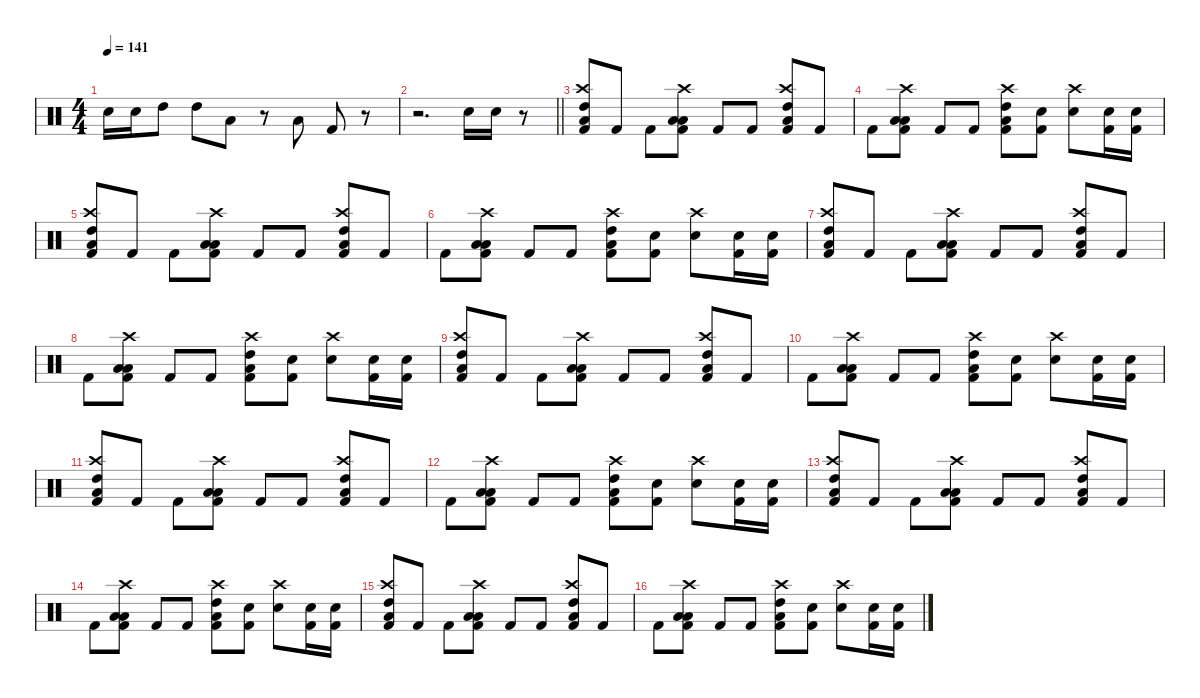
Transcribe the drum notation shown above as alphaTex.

\defaultSystemsLayout 4
\hideDynamics
\bracketExtendMode nobrackets
\singleTrackTrackNamePolicy hidden
\multiTrackTrackNamePolicy hidden
\otherSystemsTrackNameOrientation horizontal
\track ("Drum" "drm.") {instrument percussion}
\staff {score}
\articulation defaults
\ts (4 4)
\tempo 141
\clef neutral
\ks c "Snare (hit) 2".16{dy fff beam Down} "Snare (hit) 2".16{beam Down} "High Tom (hit)".8{beam Down} "High Tom (hit)".8{beam Down} "Low Tom (hit)".8{beam Down}
r.8{beam Down} "Low Floor Tom (hit)".8{beam Up} "Kick (hit) 2".8{beam Up} r.8{beam Up} |
\barLineRight lightlight
r.2{d beam Down} "Snare (hit) 2".16{beam Down} "Snare (hit) 2".16{beam Down} r.8{beam Down} |
("Kick (hit) 2" "High Tom (hit)" "Low Tom (hit)" "Crash high (hit)").8{beam Up} "Kick (hit) 2".8{dy ff beam Up} "Kick (hit) 2".8{beam Down} ("Kick (hit) 2" "Low Tom (hit)" "Low Floor Tom (hit)" "Crash high (hit)").8{dy fff beam Down} "Kick (hit) 2".8{dy ff beam Up} "Kick (hit) 2".8{beam Up} ("Kick (hit) 2" "High Tom (hit)" "Crash high (hit)" "Low Tom (hit)").8{dy fff beam Up} "Kick (hit) 2".8{dy ff beam Up} |
"Kick (hit) 2".8{beam Down} ("Kick (hit) 2" "Low Tom (hit)" "Low Floor Tom (hit)" "Crash high (hit)").8{dy fff beam Down} "Kick (hit) 2".8{dy ff beam Up} "Kick (hit) 2".8{beam Up} ("High Tom (hit)" "Kick (hit) 2" "Low Tom (hit)" "Crash high (hit)").8{dy fff beam Down} ("Kick (hit) 2" "Snare (hit) 2").8{dy ff beam Down} ("Snare (hit) 2" "Crash high (hit)").8{dy fff beam Down} ("Kick (hit) 2" "Snare (hit) 2").16{beam Down} ("Kick (hit) 2" "Snare (hit) 2").16{dy ff beam Down} |
("Kick (hit) 2" "High Tom (hit)" "Low Tom (hit)" "Crash high (hit)").8{dy fff beam Up} "Kick (hit) 2".8{dy ff beam Up} "Kick (hit) 2".8{beam Down} ("Kick (hit) 2" "Low Tom (hit)" "Low Floor Tom (hit)" "Crash high (hit)").8{dy fff beam Down} "Kick (hit) 2".8{dy ff beam Up} "Kick (hit) 2".8{beam Up} ("Kick (hit) 2" "High Tom (hit)" "Crash high (hit)" "Low Tom (hit)").8{dy fff beam Up} "Kick (hit) 2".8{dy ff beam Up} |
"Kick (hit) 2".8{beam Down} ("Kick (hit) 2" "Low Tom (hit)" "Low Floor Tom (hit)" "Crash high (hit)").8{dy fff beam Down} "Kick (hit) 2".8{dy ff beam Up} "Kick (hit) 2".8{beam Up} ("High Tom (hit)" "Kick (hit) 2" "Low Tom (hit)" "Crash high (hit)").8{dy fff beam Down} ("Kick (hit) 2" "Snare (hit) 2").8{dy ff beam Down} ("Snare (hit) 2" "Crash high (hit)").8{dy fff beam Down} ("Kick (hit) 2" "Snare (hit) 2").16{beam Down} ("Kick (hit) 2" "Snare (hit) 2").16{dy ff beam Down} |
("Kick (hit) 2" "High Tom (hit)" "Low Tom (hit)" "Crash high (hit)").8{dy fff beam Up} "Kick (hit) 2".8{dy ff beam Up} "Kick (hit) 2".8{beam Down} ("Kick (hit) 2" "Low Tom (hit)" "Low Floor Tom (hit)" "Crash high (hit)").8{dy fff beam Down} "Kick (hit) 2".8{dy ff beam Up} "Kick (hit) 2".8{beam Up} ("Kick (hit) 2" "High Tom (hit)" "Crash high (hit)" "Low Tom (hit)").8{dy fff beam Up} "Kick (hit) 2".8{dy ff beam Up} |
"Kick (hit) 2".8{beam Down} ("Kick (hit) 2" "Low Tom (hit)" "Low Floor Tom (hit)" "Crash high (hit)").8{dy fff beam Down} "Kick (hit) 2".8{dy ff beam Up} "Kick (hit) 2".8{beam Up} ("High Tom (hit)" "Kick (hit) 2" "Low Tom (hit)" "Crash high (hit)").8{dy fff beam Down} ("Kick (hit) 2" "Snare (hit) 2").8{dy ff beam Down} ("Snare (hit) 2" "Crash high (hit)").8{dy fff beam Down} ("Kick (hit) 2" "Snare (hit) 2").16{beam Down} ("Kick (hit) 2" "Snare (hit) 2").16{dy ff beam Down} |
("Kick (hit) 2" "High Tom (hit)" "Low Tom (hit)" "Crash high (hit)").8{dy fff beam Up} "Kick (hit) 2".8{dy ff beam Up} "Kick (hit) 2".8{beam Down} ("Kick (hit) 2" "Low Tom (hit)" "Low Floor Tom (hit)" "Crash high (hit)").8{dy fff beam Down} "Kick (hit) 2".8{dy ff beam Up} "Kick (hit) 2".8{beam Up} ("Kick (hit) 2" "High Tom (hit)" "Crash high (hit)" "Low Tom (hit)").8{dy fff beam Up} "Kick (hit) 2".8{dy ff beam Up} |
"Kick (hit) 2".8{beam Down} ("Kick (hit) 2" "Low Tom (hit)" "Low Floor Tom (hit)" "Crash high (hit)").8{dy fff beam Down} "Kick (hit) 2".8{dy ff beam Up} "Kick (hit) 2".8{beam Up} ("High Tom (hit)" "Kick (hit) 2" "Low Tom (hit)" "Crash high (hit)").8{dy fff beam Down} ("Kick (hit) 2" "Snare (hit) 2").8{dy ff beam Down} ("Snare (hit) 2" "Crash high (hit)").8{dy fff beam Down} ("Kick (hit) 2" "Snare (hit) 2").16{beam Down} ("Kick (hit) 2" "Snare (hit) 2").16{dy ff beam Down} |
("Kick (hit) 2" "High Tom (hit)" "Low Tom (hit)" "Crash high (hit)").8{dy fff beam Up} "Kick (hit) 2".8{dy ff beam Up} "Kick (hit) 2".8{beam Down} ("Kick (hit) 2" "Low Tom (hit)" "Low Floor Tom (hit)" "Crash high (hit)").8{dy fff beam Down} "Kick (hit) 2".8{dy ff beam Up} "Kick (hit) 2".8{beam Up} ("Kick (hit) 2" "High Tom (hit)" "Crash high (hit)" "Low Tom (hit)").8{dy fff beam Up} "Kick (hit) 2".8{dy ff beam Up} |
"Kick (hit) 2".8{beam Down} ("Kick (hit) 2" "Low Tom (hit)" "Low Floor Tom (hit)" "Crash high (hit)").8{dy fff beam Down} "Kick (hit) 2".8{dy ff beam Up} "Kick (hit) 2".8{beam Up} ("High Tom (hit)" "Kick (hit) 2" "Low Tom (hit)" "Crash high (hit)").8{dy fff beam Down} ("Kick (hit) 2" "Snare (hit) 2").8{dy ff beam Down} ("Snare (hit) 2" "Crash high (hit)").8{dy fff beam Down} ("Kick (hit) 2" "Snare (hit) 2").16{beam Down} ("Kick (hit) 2" "Snare (hit) 2").16{dy ff beam Down} |
("Kick (hit) 2" "High Tom (hit)" "Low Tom (hit)" "Crash high (hit)").8{dy fff beam Up} "Kick (hit) 2".8{dy ff beam Up} "Kick (hit) 2".8{beam Down} ("Kick (hit) 2" "Low Tom (hit)" "Low Floor Tom (hit)" "Crash high (hit)").8{dy fff beam Down} "Kick (hit) 2".8{dy ff beam Up} "Kick (hit) 2".8{beam Up} ("Kick (hit) 2" "High Tom (hit)" "Crash high (hit)" "Low Tom (hit)").8{dy fff beam Up} "Kick (hit) 2".8{dy ff beam Up} |
"Kick (hit) 2".8{beam Down} ("Kick (hit) 2" "Low Tom (hit)" "Low Floor Tom (hit)" "Crash high (hit)").8{dy fff beam Down} "Kick (hit) 2".8{dy ff beam Up} "Kick (hit) 2".8{beam Up} ("High Tom (hit)" "Kick (hit) 2" "Low Tom (hit)" "Crash high (hit)").8{dy fff beam Down} ("Kick (hit) 2" "Snare (hit) 2").8{dy ff beam Down} ("Snare (hit) 2" "Crash high (hit)").8{dy fff beam Down} ("Kick (hit) 2" "Snare (hit) 2").16{beam Down} ("Kick (hit) 2" "Snare (hit) 2").16{dy ff beam Down} |
("Kick (hit) 2" "High Tom (hit)" "Low Tom (hit)" "Crash high (hit)").8{dy fff beam Up} "Kick (hit) 2".8{dy ff beam Up} "Kick (hit) 2".8{beam Down} ("Kick (hit) 2" "Low Tom (hit)" "Low Floor Tom (hit)" "Crash high (hit)").8{dy fff beam Down} "Kick (hit) 2".8{dy ff beam Up} "Kick (hit) 2".8{beam Up} ("Kick (hit) 2" "High Tom (hit)" "Crash high (hit)" "Low Tom (hit)").8{dy fff beam Up} "Kick (hit) 2".8{dy ff beam Up} |
"Kick (hit) 2".8{beam Down} ("Kick (hit) 2" "Low Tom (hit)" "Low Floor Tom (hit)" "Crash high (hit)").8{dy fff beam Down} "Kick (hit) 2".8{dy ff beam Up} "Kick (hit) 2".8{beam Up} ("High Tom (hit)" "Kick (hit) 2" "Low Tom (hit)" "Crash high (hit)").8{dy fff beam Down} ("Kick (hit) 2" "Snare (hit) 2").8{dy ff beam Down} ("Snare (hit) 2" "Crash high (hit)").8{dy fff beam Down} ("Kick (hit) 2" "Snare (hit) 2").16{beam Down} ("Kick (hit) 2" "Snare (hit) 2").16{dy ff beam Down}
